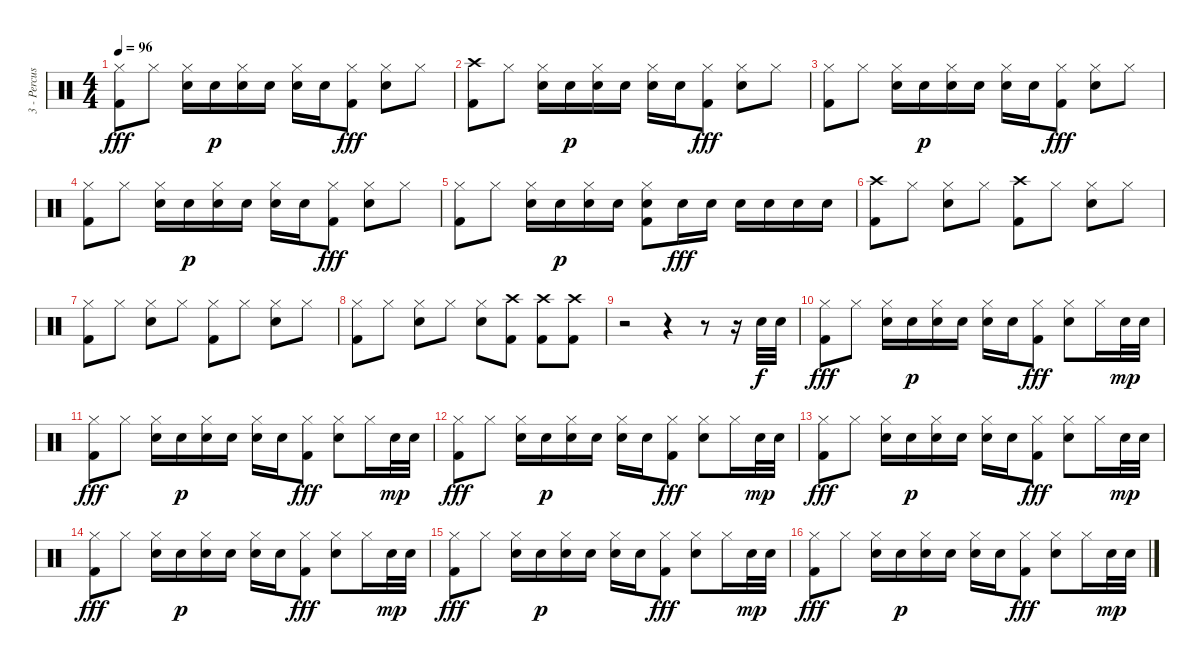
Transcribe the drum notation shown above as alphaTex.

\track ("3 - Percussion" "3 - Percus") {instrument percussion}
\staff {score}
\articulation defaults
\ts (4 4)
\tempo 96
\clef neutral
\ks c
("Hi-Hat (closed)" "Kick (hit) 2").8{dy fff} "Hi-Hat (closed)".8 ("Hi-Hat (closed)" "Snare (hit) 2").16 "Snare (hit) 2".16{dy p} ("Hi-Hat (closed)" "Snare (hit) 2").16 "Snare (hit) 2".16 ("Hi-Hat (closed)" "Snare (hit) 2").16 "Snare (hit) 2".16 ("Hi-Hat (closed)" "Kick (hit) 2").8{dy fff} ("Hi-Hat (closed)" "Snare (hit) 2").8 "Hi-Hat (closed)".8 |
("Crash high (hit)" "Kick (hit) 2").8 "Hi-Hat (closed)".8 ("Hi-Hat (closed)" "Snare (hit) 2").16 "Snare (hit) 2".16{dy p} ("Hi-Hat (closed)" "Snare (hit) 2").16 "Snare (hit) 2".16 ("Hi-Hat (closed)" "Snare (hit) 2").16 "Snare (hit) 2".16 ("Hi-Hat (closed)" "Kick (hit) 2").8{dy fff} ("Hi-Hat (closed)" "Snare (hit) 2").8 "Hi-Hat (closed)".8 |
("Hi-Hat (closed)" "Kick (hit) 2").8 "Hi-Hat (closed)".8 ("Hi-Hat (closed)" "Snare (hit) 2").16 "Snare (hit) 2".16{dy p} ("Hi-Hat (closed)" "Snare (hit) 2").16 "Snare (hit) 2".16 ("Hi-Hat (closed)" "Snare (hit) 2").16 "Snare (hit) 2".16 ("Hi-Hat (closed)" "Kick (hit) 2").8{dy fff} ("Hi-Hat (closed)" "Snare (hit) 2").8 "Hi-Hat (closed)".8 |
("Hi-Hat (closed)" "Kick (hit) 2").8 "Hi-Hat (closed)".8 ("Hi-Hat (closed)" "Snare (hit) 2").16 "Snare (hit) 2".16{dy p} ("Hi-Hat (closed)" "Snare (hit) 2").16 "Snare (hit) 2".16 ("Hi-Hat (closed)" "Snare (hit) 2").16 "Snare (hit) 2".16 ("Hi-Hat (closed)" "Kick (hit) 2").8{dy fff} ("Hi-Hat (closed)" "Snare (hit) 2").8 "Hi-Hat (closed)".8 |
("Hi-Hat (closed)" "Kick (hit) 2").8 "Hi-Hat (closed)".8 ("Hi-Hat (closed)" "Snare (hit) 2").16 "Snare (hit) 2".16{dy p} ("Hi-Hat (closed)" "Snare (hit) 2").16 "Snare (hit) 2".16 ("Hi-Hat (closed)" "Snare (hit) 2" "Kick (hit) 2").8 "Snare (hit) 2".16{dy fff} "Snare (hit) 2".16 "Snare (hit) 2".16 "Snare (hit) 2".16 "Snare (hit) 2".16 "Snare (hit) 2".16 |
("Crash high (hit)" "Kick (hit) 2").8 "Hi-Hat (closed)".8 ("Hi-Hat (closed)" "Snare (hit) 2").8 "Hi-Hat (closed)".8 ("Crash high (hit)" "Kick (hit) 2").8 "Hi-Hat (closed)".8 ("Hi-Hat (closed)" "Snare (hit) 2").8 "Hi-Hat (closed)".8 |
("Hi-Hat (closed)" "Kick (hit) 2").8 "Hi-Hat (closed)".8 ("Hi-Hat (closed)" "Snare (hit) 2").8 "Hi-Hat (closed)".8 ("Hi-Hat (closed)" "Kick (hit) 2").8 "Hi-Hat (closed)".8 ("Hi-Hat (closed)" "Snare (hit) 2").8 "Hi-Hat (closed)".8 |
("Hi-Hat (closed)" "Kick (hit) 2").8 "Hi-Hat (closed)".8 ("Hi-Hat (closed)" "Snare (hit) 2").8 "Hi-Hat (closed)".8 ("Hi-Hat (closed)" "Snare (hit) 2").8 ("Crash high (hit)" "Kick (hit) 2").8 ("Crash high (hit)" "Kick (hit) 2").8 ("Crash high (hit)" "Kick (hit) 2").8 |
r.2 r.4 r.8 r.16 "Snare (hit) 2".32{dy f} "Snare (hit) 2".32 |
("Hi-Hat (closed)" "Kick (hit) 2").8{dy fff} "Hi-Hat (closed)".8 ("Hi-Hat (closed)" "Snare (hit) 2").16 "Snare (hit) 2".16{dy p} ("Hi-Hat (closed)" "Snare (hit) 2").16 "Snare (hit) 2".16 ("Hi-Hat (closed)" "Snare (hit) 2").16 "Snare (hit) 2".16 ("Hi-Hat (closed)" "Kick (hit) 2").8{dy fff} ("Hi-Hat (closed)" "Snare (hit) 2").8 "Hi-Hat (closed)".16 "Snare (hit) 2".32{dy mp} "Snare (hit) 2".32 |
("Hi-Hat (closed)" "Kick (hit) 2").8{dy fff} "Hi-Hat (closed)".8 ("Hi-Hat (closed)" "Snare (hit) 2").16 "Snare (hit) 2".16{dy p} ("Hi-Hat (closed)" "Snare (hit) 2").16 "Snare (hit) 2".16 ("Hi-Hat (closed)" "Snare (hit) 2").16 "Snare (hit) 2".16 ("Hi-Hat (closed)" "Kick (hit) 2").8{dy fff} ("Hi-Hat (closed)" "Snare (hit) 2").8 "Hi-Hat (closed)".16 "Snare (hit) 2".32{dy mp} "Snare (hit) 2".32 |
("Hi-Hat (closed)" "Kick (hit) 2").8{dy fff} "Hi-Hat (closed)".8 ("Hi-Hat (closed)" "Snare (hit) 2").16 "Snare (hit) 2".16{dy p} ("Hi-Hat (closed)" "Snare (hit) 2").16 "Snare (hit) 2".16 ("Hi-Hat (closed)" "Snare (hit) 2").16 "Snare (hit) 2".16 ("Hi-Hat (closed)" "Kick (hit) 2").8{dy fff} ("Hi-Hat (closed)" "Snare (hit) 2").8 "Hi-Hat (closed)".16 "Snare (hit) 2".32{dy mp} "Snare (hit) 2".32 |
("Hi-Hat (closed)" "Kick (hit) 2").8{dy fff} "Hi-Hat (closed)".8 ("Hi-Hat (closed)" "Snare (hit) 2").16 "Snare (hit) 2".16{dy p} ("Hi-Hat (closed)" "Snare (hit) 2").16 "Snare (hit) 2".16 ("Hi-Hat (closed)" "Snare (hit) 2").16 "Snare (hit) 2".16 ("Hi-Hat (closed)" "Kick (hit) 2").8{dy fff} ("Hi-Hat (closed)" "Snare (hit) 2").8 "Hi-Hat (closed)".16 "Snare (hit) 2".32{dy mp} "Snare (hit) 2".32 |
("Hi-Hat (closed)" "Kick (hit) 2").8{dy fff} "Hi-Hat (closed)".8 ("Hi-Hat (closed)" "Snare (hit) 2").16 "Snare (hit) 2".16{dy p} ("Hi-Hat (closed)" "Snare (hit) 2").16 "Snare (hit) 2".16 ("Hi-Hat (closed)" "Snare (hit) 2").16 "Snare (hit) 2".16 ("Hi-Hat (closed)" "Kick (hit) 2").8{dy fff} ("Hi-Hat (closed)" "Snare (hit) 2").8 "Hi-Hat (closed)".16 "Snare (hit) 2".32{dy mp} "Snare (hit) 2".32 |
("Hi-Hat (closed)" "Kick (hit) 2").8{dy fff} "Hi-Hat (closed)".8 ("Hi-Hat (closed)" "Snare (hit) 2").16 "Snare (hit) 2".16{dy p} ("Hi-Hat (closed)" "Snare (hit) 2").16 "Snare (hit) 2".16 ("Hi-Hat (closed)" "Snare (hit) 2").16 "Snare (hit) 2".16 ("Hi-Hat (closed)" "Kick (hit) 2").8{dy fff} ("Hi-Hat (closed)" "Snare (hit) 2").8 "Hi-Hat (closed)".16 "Snare (hit) 2".32{dy mp} "Snare (hit) 2".32 |
("Hi-Hat (closed)" "Kick (hit) 2").8{dy fff} "Hi-Hat (closed)".8 ("Hi-Hat (closed)" "Snare (hit) 2").16 "Snare (hit) 2".16{dy p} ("Hi-Hat (closed)" "Snare (hit) 2").16 "Snare (hit) 2".16 ("Hi-Hat (closed)" "Snare (hit) 2").16 "Snare (hit) 2".16 ("Hi-Hat (closed)" "Kick (hit) 2").8{dy fff} ("Hi-Hat (closed)" "Snare (hit) 2").8 "Hi-Hat (closed)".16 "Snare (hit) 2".32{dy mp} "Snare (hit) 2".32
